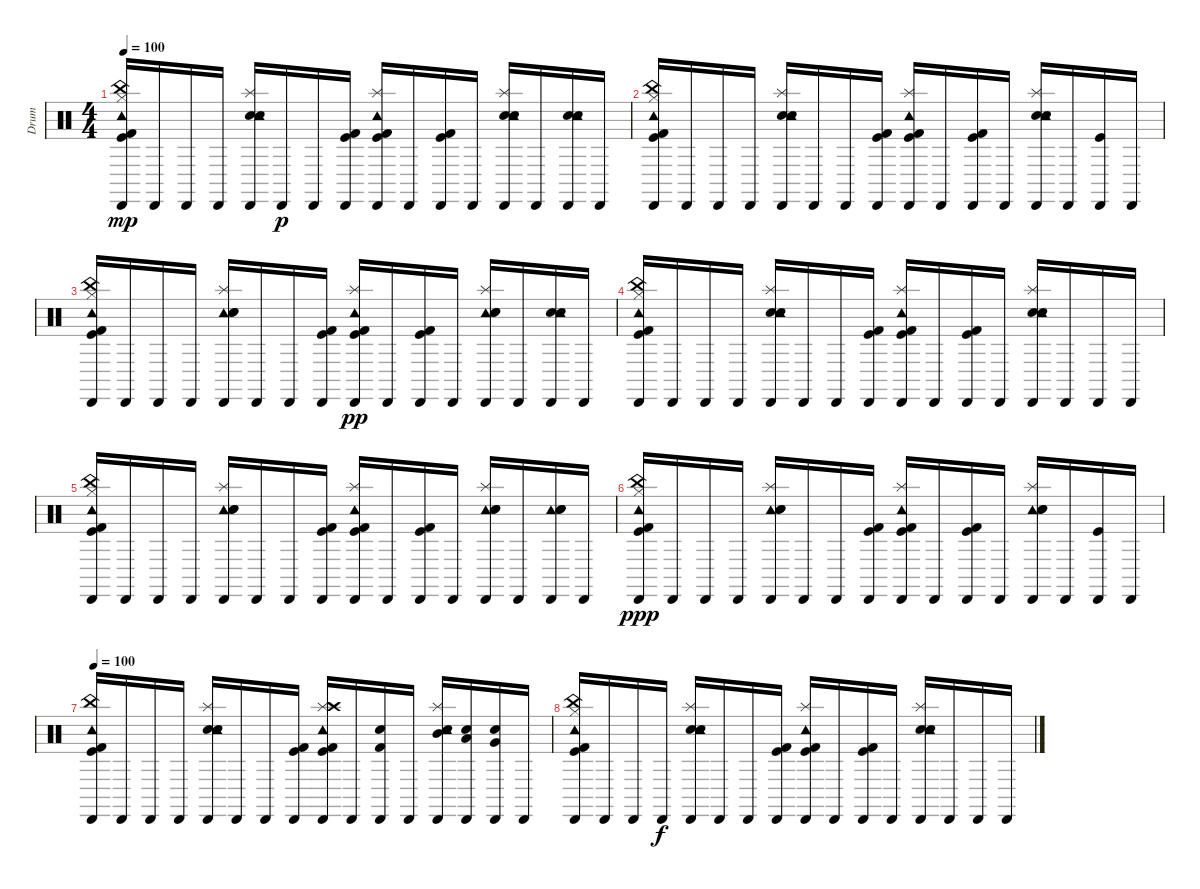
\track ("Drum" "Drum") {instrument percussion}
\staff {score}
\articulation defaults
\ts (4 4)
\tempo 100
\clef neutral
\ks c
("Kick (hit) 2" "Hi-Hat (closed)" "China (hit)" "Kick (hit)" "Cabasa (hit)" "Tambourine (hit)").16{dy mp} "Cabasa (hit)".16 "Cabasa (hit)".16 "Cabasa (hit)".16 ("Electric Snare (hit)" "Splash (hit)" "Snare (hit) 2" "Cabasa (hit)" "Tambourine (hit)").16 "Cabasa (hit)".16{dy p} "Cabasa (hit)".16 ("Kick (hit) 2" "Kick (hit)" "Cabasa (hit)").16 ("Kick (hit) 2" "Splash (hit)" "Kick (hit)" "Cabasa (hit)" "Tambourine (hit)").16 "Cabasa (hit)".16 ("Kick (hit) 2" "Kick (hit)" "Cabasa (hit)").16 "Cabasa (hit)".16 ("Electric Snare (hit)" "Snare (hit) 2" "Splash (hit)" "Cabasa (hit)" "Tambourine (hit)").16 "Cabasa (hit)".16 ("Electric Snare (hit)" "Snare (hit) 2" "Cabasa (hit)" "Tambourine (hit)").16 "Cabasa (hit)".16 |
("Kick (hit) 2" "Hi-Hat (closed)" "China (hit)" "Kick (hit)" "Cabasa (hit)" "Tambourine (hit)").16 "Cabasa (hit)".16 "Cabasa (hit)".16 "Cabasa (hit)".16 ("Electric Snare (hit)" "Splash (hit)" "Snare (hit) 2" "Cabasa (hit)" "Tambourine (hit)").16 "Cabasa (hit)".16 "Cabasa (hit)".16 ("Kick (hit) 2" "Kick (hit)" "Cabasa (hit)").16 ("Kick (hit) 2" "Splash (hit)" "Kick (hit)" "Cabasa (hit)" "Tambourine (hit)").16 "Cabasa (hit)".16 ("Kick (hit) 2" "Kick (hit)" "Cabasa (hit)").16 "Cabasa (hit)".16 ("Electric Snare (hit)" "Snare (hit) 2" "Splash (hit)" "Cabasa (hit)" "Tambourine (hit)").16 "Cabasa (hit)".16 ("Kick (hit)" "Cabasa (hit)").16 "Cabasa (hit)".16 |
("Tambourine (hit)" "Cabasa (hit)" "Kick (hit)" "China (hit)" "Hi-Hat (closed)" "Kick (hit) 2").16 "Cabasa (hit)".16 "Cabasa (hit)".16 "Cabasa (hit)".16 ("Tambourine (hit)" "Cabasa (hit)" "Snare (hit) 2" "Splash (hit)" "Electric Snare (hit)").16 "Cabasa (hit)".16 "Cabasa (hit)".16 ("Cabasa (hit)" "Kick (hit)" "Kick (hit) 2").16 ("Tambourine (hit)" "Cabasa (hit)" "Kick (hit)" "Splash (hit)" "Kick (hit) 2").16{dy pp} "Cabasa (hit)".16 ("Cabasa (hit)" "Kick (hit)" "Kick (hit) 2").16 "Cabasa (hit)".16 ("Tambourine (hit)" "Cabasa (hit)" "Splash (hit)" "Snare (hit) 2" "Electric Snare (hit)").16 "Cabasa (hit)".16 ("Cabasa (hit)" "Snare (hit) 2" "Electric Snare (hit)" "Tambourine (hit)").16 "Cabasa (hit)".16 |
("Kick (hit) 2" "Hi-Hat (closed)" "China (hit)" "Kick (hit)" "Cabasa (hit)" "Tambourine (hit)").16 "Cabasa (hit)".16 "Cabasa (hit)".16 "Cabasa (hit)".16 ("Splash (hit)" "Snare (hit) 2" "Cabasa (hit)" "Tambourine (hit)" "Electric Snare (hit)").16 "Cabasa (hit)".16 "Cabasa (hit)".16 ("Kick (hit) 2" "Kick (hit)" "Cabasa (hit)").16 ("Kick (hit) 2" "Splash (hit)" "Kick (hit)" "Cabasa (hit)" "Tambourine (hit)").16 "Cabasa (hit)".16 ("Kick (hit) 2" "Kick (hit)" "Cabasa (hit)").16 "Cabasa (hit)".16 ("Snare (hit) 2" "Splash (hit)" "Cabasa (hit)" "Tambourine (hit)" "Electric Snare (hit)").16 "Cabasa (hit)".16 "Cabasa (hit)".16 "Cabasa (hit)".16 |
("Tambourine (hit)" "Cabasa (hit)" "Kick (hit)" "China (hit)" "Hi-Hat (closed)" "Kick (hit) 2").16 "Cabasa (hit)".16 "Cabasa (hit)".16 "Cabasa (hit)".16 ("Tambourine (hit)" "Cabasa (hit)" "Snare (hit) 2" "Splash (hit)" "Electric Snare (hit)").16 "Cabasa (hit)".16 "Cabasa (hit)".16 ("Cabasa (hit)" "Kick (hit)" "Kick (hit) 2").16 ("Tambourine (hit)" "Cabasa (hit)" "Kick (hit)" "Splash (hit)" "Kick (hit) 2").16 "Cabasa (hit)".16 ("Cabasa (hit)" "Kick (hit)" "Kick (hit) 2").16 "Cabasa (hit)".16 ("Tambourine (hit)" "Cabasa (hit)" "Splash (hit)" "Snare (hit) 2" "Electric Snare (hit)").16 "Cabasa (hit)".16 ("Tambourine (hit)" "Cabasa (hit)" "Snare (hit) 2" "Electric Snare (hit)").16 "Cabasa (hit)".16 |
("Tambourine (hit)" "Cabasa (hit)" "Kick (hit)" "China (hit)" "Hi-Hat (closed)" "Kick (hit) 2").16{dy ppp} "Cabasa (hit)".16 "Cabasa (hit)".16 "Cabasa (hit)".16 ("Tambourine (hit)" "Cabasa (hit)" "Snare (hit) 2" "Splash (hit)" "Electric Snare (hit)").16 "Cabasa (hit)".16 "Cabasa (hit)".16 ("Cabasa (hit)" "Kick (hit)" "Kick (hit) 2").16 ("Tambourine (hit)" "Cabasa (hit)" "Kick (hit)" "Splash (hit)" "Kick (hit) 2").16 "Cabasa (hit)".16 ("Cabasa (hit)" "Kick (hit)" "Kick (hit) 2").16 "Cabasa (hit)".16 ("Tambourine (hit)" "Cabasa (hit)" "Splash (hit)" "Snare (hit) 2" "Electric Snare (hit)").16 "Cabasa (hit)".16 ("Cabasa (hit)" "Kick (hit)").16 "Cabasa (hit)".16 |
\tempo 100
("Tambourine (hit)" "Kick (hit) 2" "Cabasa (hit)" "Kick (hit)" "China (hit)").16 "Cabasa (hit)".16 "Cabasa (hit)".16 "Cabasa (hit)".16 ("Electric Snare (hit)" "Tambourine (hit)" "Cabasa (hit)" "Snare (hit) 2" "Splash (hit)").16 "Cabasa (hit)".16 "Cabasa (hit)".16 ("Kick (hit) 2" "Cabasa (hit)" "Kick (hit)").16 ("Tambourine (hit)" "Kick (hit) 2" "Cabasa (hit)" "Kick (hit)" "Splash (hit)" "Crash high (hit)").16 "Cabasa (hit)".16 ("Kick (hit) 2" "Snare (hit) 2" "Cabasa (hit)").16 "Cabasa (hit)".16 ("Tambourine (hit)" "Cabasa (hit)" "Splash (hit)" "Mid Tom (hit)" "Snare (hit) 2").16 ("Snare (hit) 2" "Cabasa (hit)" "Low Tom (hit)").16 ("Cabasa (hit)" "Snare (hit) 2" "Very Low Tom (hit)").16 "Cabasa (hit)".16 |
("Tambourine (hit)" "Cabasa (hit)" "Kick (hit)" "China (hit)" "Hi-Hat (closed)" "Kick (hit) 2").16 "Cabasa (hit)".16 "Cabasa (hit)".16 "Cabasa (hit)".16{dy f} ("Electric Snare (hit)" "Tambourine (hit)" "Cabasa (hit)" "Snare (hit) 2" "Splash (hit)").16 "Cabasa (hit)".16 "Cabasa (hit)".16 ("Cabasa (hit)" "Kick (hit)" "Kick (hit) 2").16 ("Tambourine (hit)" "Cabasa (hit)" "Kick (hit)" "Splash (hit)" "Kick (hit) 2").16 "Cabasa (hit)".16 ("Cabasa (hit)" "Kick (hit)" "Kick (hit) 2").16 "Cabasa (hit)".16 ("Electric Snare (hit)" "Tambourine (hit)" "Cabasa (hit)" "Splash (hit)" "Snare (hit) 2").16 "Cabasa (hit)".16 "Cabasa (hit)".16 "Cabasa (hit)".16
